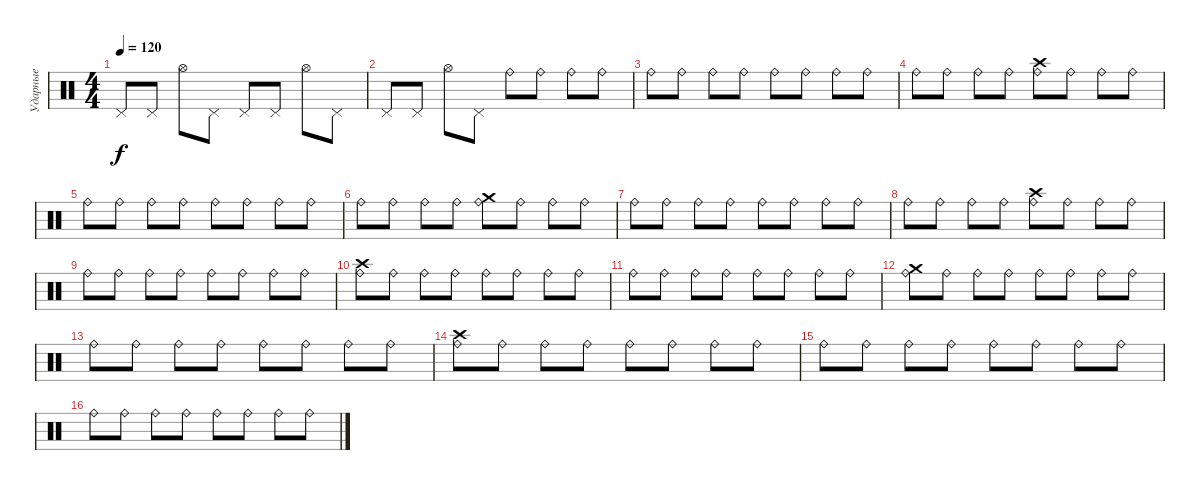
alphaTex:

\track ("Ударные" "Ударные") {instrument percussion}
\staff {score}
\articulation defaults
\ts (4 4)
\tempo 120
\clef neutral
\ks c "Pedal Hi-Hat (hit)".8{dy f} "Pedal Hi-Hat (hit)".8 "Hi-Hat (open)".8 "Pedal Hi-Hat (hit)".8 "Pedal Hi-Hat (hit)".8 "Pedal Hi-Hat (hit)".8 "Hi-Hat (open)".8 "Pedal Hi-Hat (hit)".8
|
"Pedal Hi-Hat (hit)".8 "Pedal Hi-Hat (hit)".8 "Hi-Hat (open)".8 "Pedal Hi-Hat (hit)".8 "Ride (bell)".8 "Ride (bell)".8 "Ride (bell)".8 "Ride (bell)".8 |
"Ride (bell)".8 "Ride (bell)".8 "Ride (bell)".8 "Ride (bell)".8 "Ride (bell)".8 "Ride (bell)".8 "Ride (bell)".8 "Ride (bell)".8 |
"Ride (bell)".8 "Ride (bell)".8 "Ride (bell)".8 "Ride (bell)".8 ("Crash high (hit)" "Ride (bell)").8 "Ride (bell)".8 "Ride (bell)".8 "Ride (bell)".8 |
"Ride (bell)".8 "Ride (bell)".8 "Ride (bell)".8 "Ride (bell)".8 "Ride (bell)".8 "Ride (bell)".8 "Ride (bell)".8 "Ride (bell)".8 |
"Ride (bell)".8 "Ride (bell)".8 "Ride (bell)".8 "Ride (bell)".8 ("Crash medium (hit)" "Ride (bell)").8 "Ride (bell)".8 "Ride (bell)".8 "Ride (bell)".8 |
"Ride (bell)".8 "Ride (bell)".8 "Ride (bell)".8 "Ride (bell)".8 "Ride (bell)".8 "Ride (bell)".8 "Ride (bell)".8 "Ride (bell)".8 |
"Ride (bell)".8 "Ride (bell)".8 "Ride (bell)".8 "Ride (bell)".8 ("Crash high (hit)" "Ride (bell)").8 "Ride (bell)".8 "Ride (bell)".8 "Ride (bell)".8 |
"Ride (bell)".8 "Ride (bell)".8 "Ride (bell)".8 "Ride (bell)".8 "Ride (bell)".8 "Ride (bell)".8 "Ride (bell)".8 "Ride (bell)".8 |
("Crash high (hit)" "Ride (bell)").8 "Ride (bell)".8 "Ride (bell)".8 "Ride (bell)".8 "Ride (bell)".8 "Ride (bell)".8 "Ride (bell)".8 "Ride (bell)".8 |
"Ride (bell)".8 "Ride (bell)".8 "Ride (bell)".8 "Ride (bell)".8 "Ride (bell)".8 "Ride (bell)".8 "Ride (bell)".8 "Ride (bell)".8 |
("Crash medium (hit)" "Ride (bell)").8 "Ride (bell)".8 "Ride (bell)".8 "Ride (bell)".8 "Ride (bell)".8 "Ride (bell)".8 "Ride (bell)".8 "Ride (bell)".8 |
"Ride (bell)".8 "Ride (bell)".8 "Ride (bell)".8 "Ride (bell)".8 "Ride (bell)".8 "Ride (bell)".8 "Ride (bell)".8 "Ride (bell)".8 |
("Crash high (hit)" "Ride (bell)").8 "Ride (bell)".8 "Ride (bell)".8 "Ride (bell)".8 "Ride (bell)".8 "Ride (bell)".8 "Ride (bell)".8 "Ride (bell)".8 |
"Ride (bell)".8 "Ride (bell)".8 "Ride (bell)".8 "Ride (bell)".8 "Ride (bell)".8 "Ride (bell)".8 "Ride (bell)".8 "Ride (bell)".8 |
"Ride (bell)".8 "Ride (bell)".8 "Ride (bell)".8 "Ride (bell)".8 "Ride (bell)".8 "Ride (bell)".8 "Ride (bell)".8 "Ride (bell)".8
